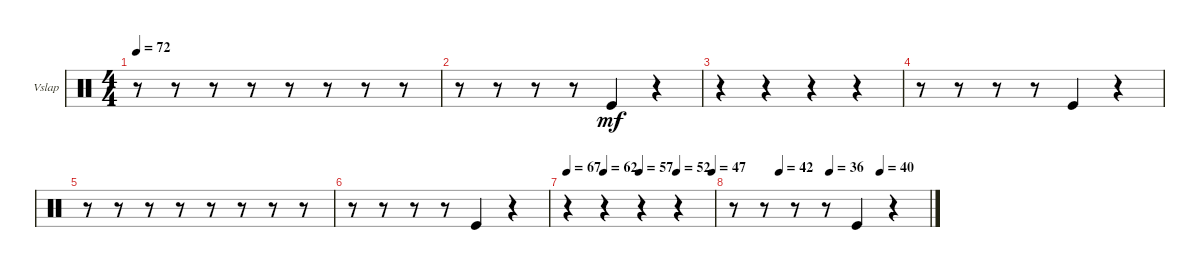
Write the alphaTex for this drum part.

\defaultSystemsLayout 4
\bracketExtendMode groupsimilarinstruments
\firstSystemTrackNameOrientation horizontal
\otherSystemsTrackNameOrientation horizontal
\track ("Vibraslap" "Vslap") {instrument percussion}
\staff {score}
\articulation defaults
\ts (4 4)
\tempo 72
\clef neutral
\scale
0.333333
\ks c
r.8{dy mf} r.8 r.8 r.8 r.8 r.8 r.8 r.8 |
\scale
0.333333 r.8 r.8 r.8 r.8 "Kick (hit)".4 r.4 |
\scale
0.333333 r.4 r.4 r.4 r.4 |
\scale
0.333333 r.8 r.8 r.8 r.8 "Kick (hit)".4 r.4 |
\scale
0.333333 r.8 r.8 r.8 r.8 r.8 r.8 r.8 r.8 |
r.8 r.8 r.8 r.8 "Kick (hit)".4 r.4 |
\tempo 67
\tempo (62 0.248792)
\tempo (57 0.492754)
\tempo (52 0.746377)
\tempo (47 0.9875)
r.4 r.4 r.4 r.4 |
\tempo (42 0.2375)
\tempo (36 0.49375)
\tempo (40 0.75)
r.8 r.8 r.8 r.8 "Kick (hit)".4 r.4
